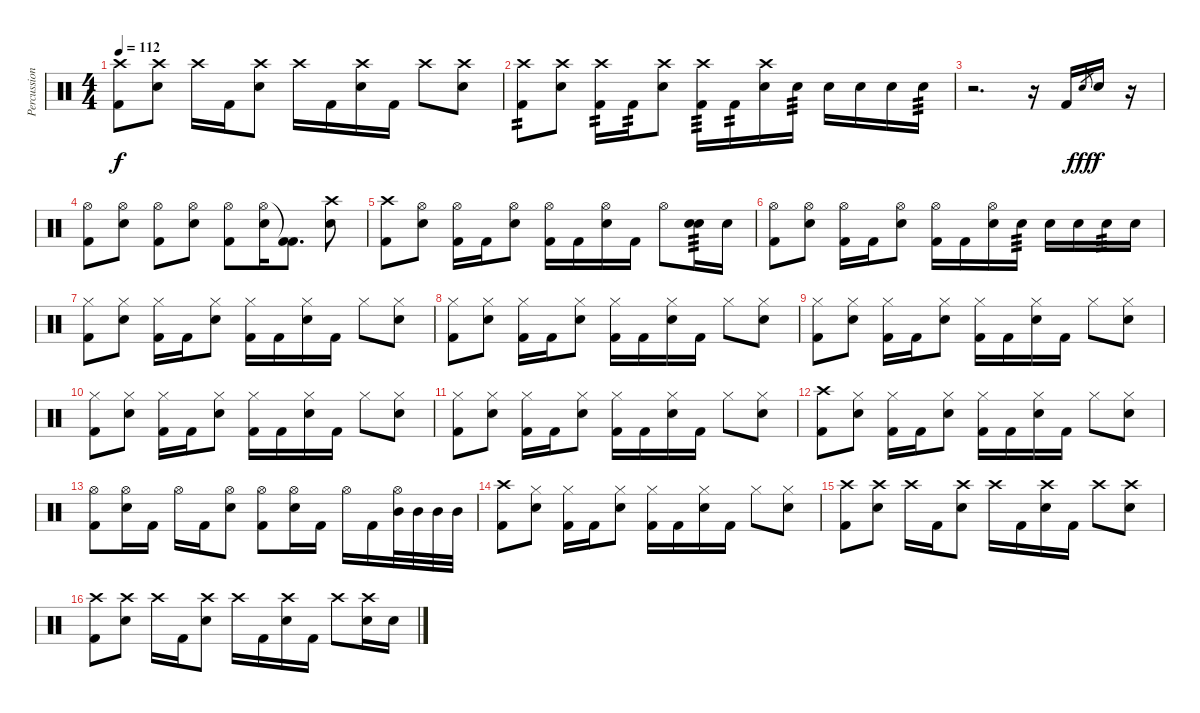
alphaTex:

\track ("Percussion" "Percussion") {instrument percussion}
\staff {score}
\articulation defaults
\ts (4 4)
\tempo 112
\clef neutral
\ks c
("Crash high (hit)" "Kick (hit) 2").8{dy f} ("Crash high (hit)" "Electric Snare (hit)").8 "Crash high (hit)".16 "Kick (hit) 2".16 ("Crash high (hit)" "Electric Snare (hit)").8 "Crash high (hit)".16 "Kick (hit) 2".16 ("Crash high (hit)" "Electric Snare (hit)").16 "Kick (hit) 2".16 "Crash high (hit)".8 ("Crash high (hit)" "Electric Snare (hit)").8 |
("Crash high (hit)" "Kick (hit) 2").8{tp 2} ("Crash high (hit)" "Electric Snare (hit)").8 ("Crash high (hit)" "Kick (hit) 2").16{tp 2} "Kick (hit) 2".16{tp 2} ("Crash high (hit)" "Electric Snare (hit)").8 ("Crash high (hit)" "Kick (hit) 2").16{tp 3} "Kick (hit) 2".16{tp 2} ("Crash high (hit)" "Electric Snare (hit)").16 "Electric Snare (hit)".16{tp 3} "Electric Snare (hit)".16 "Electric Snare (hit)".16 "Electric Snare (hit)".16 "Electric Snare (hit)".16{tp 3} |
r.2{d} r.16 "Kick (hit) 2".16 "Electric Snare (hit)".8{gr dy fff} "Electric Snare (hit)".16{dy f} r.16 |
("Hi-Hat (open)" "Kick (hit) 2").8 ("Hi-Hat (open)" "Electric Snare (hit)").8 ("Hi-Hat (open)" "Kick (hit) 2").8 ("Hi-Hat (open)" "Electric Snare (hit)").8 ("Hi-Hat (open)" "Kick (hit) 2").8 ("Hi-Hat (open)" "Electric Snare (hit)").16 ("Kick (hit) 2"{t} "Kick (hit) 2").8{d} ("Crash high (hit)" "Electric Snare (hit)").8 |
("Crash high (hit)" "Kick (hit) 2").8 ("Hi-Hat (open)" "Electric Snare (hit)").8 ("Hi-Hat (open)" "Kick (hit) 2").16 "Kick (hit) 2".16 ("Hi-Hat (open)" "Electric Snare (hit)").8 ("Hi-Hat (open)" "Kick (hit) 2").16 "Kick (hit) 2".16 ("Hi-Hat (open)" "Electric Snare (hit)").16 "Kick (hit) 2".16 "Hi-Hat (open)".8 ("Electric Snare (hit)" "Electric Snare (hit)").16{tp 3} "Electric Snare (hit)".16 |
("Hi-Hat (open)" "Kick (hit) 2").8 ("Hi-Hat (open)" "Electric Snare (hit)").8 ("Hi-Hat (open)" "Kick (hit) 2").16 "Kick (hit) 2".16 ("Hi-Hat (open)" "Electric Snare (hit)").8 ("Hi-Hat (open)" "Kick (hit) 2").16 "Kick (hit) 2".16 ("Hi-Hat (open)" "Electric Snare (hit)").16 "Electric Snare (hit)".16{tp 3} "Electric Snare (hit)".16 "Electric Snare (hit)".16 "Electric Snare (hit)".16{tp 3} "Electric Snare (hit)".16 |
("Hi-Hat (closed)" "Kick (hit) 2").8 ("Hi-Hat (closed)" "Electric Snare (hit)").8 ("Hi-Hat (closed)" "Kick (hit) 2").16 "Kick (hit) 2".16 ("Hi-Hat (closed)" "Electric Snare (hit)").8 ("Hi-Hat (closed)" "Kick (hit) 2").16 "Kick (hit) 2".16 ("Hi-Hat (closed)" "Electric Snare (hit)").16 "Kick (hit) 2".16 "Hi-Hat (closed)".8 ("Hi-Hat (closed)" "Electric Snare (hit)").8 |
("Hi-Hat (closed)" "Kick (hit) 2").8 ("Hi-Hat (closed)" "Electric Snare (hit)").8 ("Hi-Hat (closed)" "Kick (hit) 2").16 "Kick (hit) 2".16 ("Hi-Hat (closed)" "Electric Snare (hit)").8 ("Hi-Hat (closed)" "Kick (hit) 2").16 "Kick (hit) 2".16 ("Hi-Hat (closed)" "Electric Snare (hit)").16 "Kick (hit) 2".16 "Hi-Hat (closed)".8 ("Hi-Hat (closed)" "Electric Snare (hit)").8 |
("Hi-Hat (closed)" "Kick (hit) 2").8 ("Hi-Hat (closed)" "Electric Snare (hit)").8 ("Hi-Hat (closed)" "Kick (hit) 2").16 "Kick (hit) 2".16 ("Hi-Hat (closed)" "Electric Snare (hit)").8 ("Hi-Hat (closed)" "Kick (hit) 2").16 "Kick (hit) 2".16 ("Hi-Hat (closed)" "Electric Snare (hit)").16 "Kick (hit) 2".16 "Hi-Hat (closed)".8 ("Hi-Hat (closed)" "Electric Snare (hit)").8 |
("Hi-Hat (closed)" "Kick (hit) 2").8 ("Hi-Hat (closed)" "Electric Snare (hit)").8 ("Hi-Hat (closed)" "Kick (hit) 2").16 "Kick (hit) 2".16 ("Hi-Hat (closed)" "Electric Snare (hit)").8 ("Hi-Hat (closed)" "Kick (hit) 2").16 "Kick (hit) 2".16 ("Hi-Hat (closed)" "Electric Snare (hit)").16 "Kick (hit) 2".16 "Hi-Hat (closed)".8 ("Hi-Hat (closed)" "Electric Snare (hit)").8 |
("Hi-Hat (closed)" "Kick (hit) 2").8 ("Hi-Hat (closed)" "Electric Snare (hit)").8 ("Hi-Hat (closed)" "Kick (hit) 2").16 "Kick (hit) 2".16 ("Hi-Hat (closed)" "Electric Snare (hit)").8 ("Hi-Hat (closed)" "Kick (hit) 2").16 "Kick (hit) 2".16 ("Hi-Hat (closed)" "Electric Snare (hit)").16 "Kick (hit) 2".16 "Hi-Hat (closed)".8 ("Hi-Hat (closed)" "Electric Snare (hit)").8 |
("Crash high (hit)" "Kick (hit) 2").8 ("Hi-Hat (closed)" "Electric Snare (hit)").8 ("Hi-Hat (closed)" "Kick (hit) 2").16 "Kick (hit) 2".16 ("Hi-Hat (closed)" "Electric Snare (hit)").8 ("Hi-Hat (closed)" "Kick (hit) 2").16 "Kick (hit) 2".16 ("Hi-Hat (closed)" "Electric Snare (hit)").16 "Kick (hit) 2".16 "Hi-Hat (closed)".8 ("Hi-Hat (closed)" "Electric Snare (hit)").8 |
("Hi-Hat (open)" "Kick (hit) 2").8 ("Hi-Hat (open)" "Electric Snare (hit)").16 "Kick (hit) 2".16 "Hi-Hat (open)".16 "Kick (hit) 2".16 ("Electric Snare (hit)" "Hi-Hat (open)").8 ("Hi-Hat (open)" "Kick (hit) 2").8 ("Hi-Hat (open)" "Electric Snare (hit)").16 "Kick (hit) 2".16 "Hi-Hat (open)".16 "Kick (hit) 2".16 ("Mid Tom (hit)" "Hi-Hat (open)").32 "Mid Tom (hit)".32 "Mid Tom (hit)".32 "Mid Tom (hit)".32 |
("Crash high (hit)" "Kick (hit) 2").8 ("Hi-Hat (closed)" "Electric Snare (hit)").8 ("Hi-Hat (closed)" "Kick (hit) 2").16 "Kick (hit) 2".16 ("Hi-Hat (closed)" "Electric Snare (hit)").8 ("Hi-Hat (closed)" "Kick (hit) 2").16 "Kick (hit) 2".16 ("Hi-Hat (closed)" "Electric Snare (hit)").16 "Kick (hit) 2".16 "Hi-Hat (closed)".8 ("Hi-Hat (closed)" "Electric Snare (hit)").8 |
("Crash high (hit)" "Kick (hit) 2").8 ("Crash high (hit)" "Electric Snare (hit)").8 "Crash high (hit)".16 "Kick (hit) 2".16 ("Crash high (hit)" "Electric Snare (hit)").8 "Crash high (hit)".16 "Kick (hit) 2".16 ("Crash high (hit)" "Electric Snare (hit)").16 "Kick (hit) 2".16 "Crash high (hit)".8 ("Crash high (hit)" "Electric Snare (hit)").8 |
("Crash high (hit)" "Kick (hit) 2").8 ("Crash high (hit)" "Electric Snare (hit)").8 "Crash high (hit)".16 "Kick (hit) 2".16 ("Crash high (hit)" "Electric Snare (hit)").8 "Crash high (hit)".16 "Kick (hit) 2".16 ("Crash high (hit)" "Electric Snare (hit)").16 "Kick (hit) 2".16 "Crash high (hit)".8 ("Crash high (hit)" "Electric Snare (hit)").16 "Electric Snare (hit)".16
